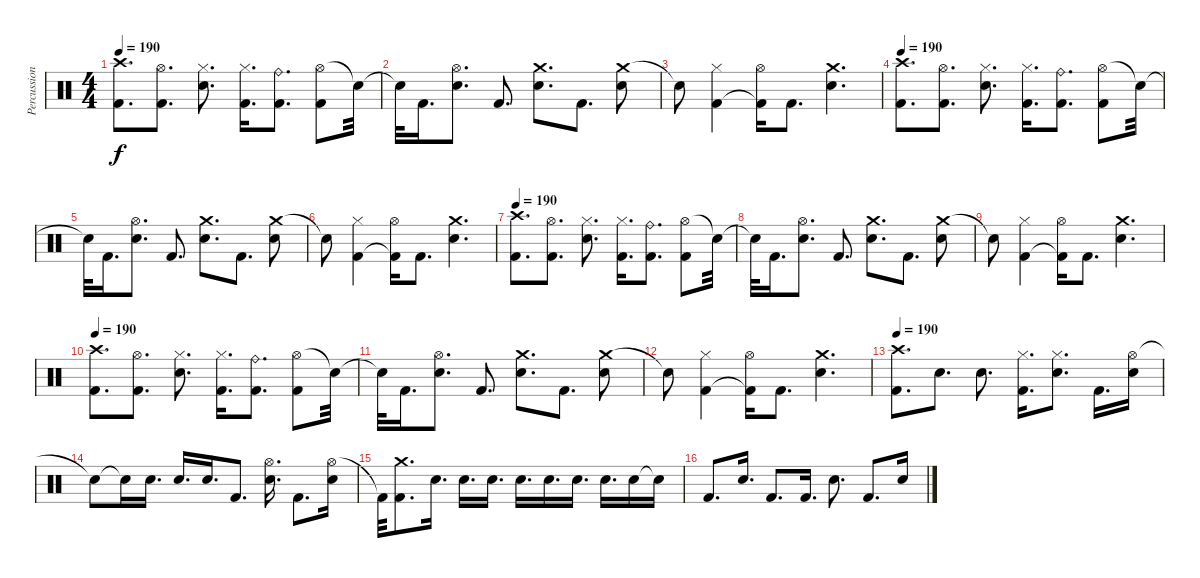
\track ("Percussions" "Percussion") {instrument percussion}
\staff {score}
\articulation defaults
\ts (4 4)
\tempo 190
\clef neutral
\ks c
("Crash high (hit)" "Kick (hit) 2").8{d dy f} ("Hi-Hat (open)" "Kick (hit) 2").8{d} ("Hi-Hat (closed)" "Snare (hit) 2").8{d} ("Hi-Hat (closed)" "Kick (hit) 2").16{d} ("Ride (bell)" "Kick (hit) 2").8{d} ("Hi-Hat (open)" "Kick (hit) 2").8 "Snare (hit)"{t}.32 |
"Snare (hit)"{t}.32 "Kick (hit) 2".16{d} ("Hi-Hat (open)" "Snare (hit) 2").8{d} "Kick (hit) 2".8{d} ("Crash medium (hit)" "Snare (hit) 2").8{d} "Kick (hit) 2".8{d} ("Crash medium (hit)" "Snare (hit) 2").8 |
"Snare (hit)"{t}.8 ("Hi-Hat (closed)" "Kick (hit) 2").4 ("Hi-Hat (open)" "Kick (hit) 2"{t}).16 "Kick (hit) 2".8{d} ("Crash medium (hit)" "Snare (hit) 2").4{d} |
\tempo 190
("Crash high (hit)" "Kick (hit) 2").8{d} ("Hi-Hat (open)" "Kick (hit) 2").8{d} ("Hi-Hat (closed)" "Snare (hit) 2").8{d} ("Hi-Hat (closed)" "Kick (hit) 2").16{d} ("Ride (bell)" "Kick (hit) 2").8{d} ("Hi-Hat (open)" "Kick (hit) 2").8 "Snare (hit)"{t}.32 |
"Snare (hit)"{t}.32 "Kick (hit) 2".16{d} ("Hi-Hat (open)" "Snare (hit) 2").8{d} "Kick (hit) 2".8{d} ("Crash medium (hit)" "Snare (hit) 2").8{d} "Kick (hit) 2".8{d} ("Crash medium (hit)" "Snare (hit) 2").8 |
"Snare (hit)"{t}.8 ("Hi-Hat (closed)" "Kick (hit) 2").4 ("Hi-Hat (open)" "Kick (hit) 2"{t}).16 "Kick (hit) 2".8{d} ("Crash medium (hit)" "Snare (hit) 2").4{d} |
\tempo 190
("Crash high (hit)" "Kick (hit) 2").8{d} ("Hi-Hat (open)" "Kick (hit) 2").8{d} ("Hi-Hat (closed)" "Snare (hit) 2").8{d} ("Hi-Hat (closed)" "Kick (hit) 2").16{d} ("Ride (bell)" "Kick (hit) 2").8{d} ("Hi-Hat (open)" "Kick (hit) 2").8 "Snare (hit)"{t}.32 |
"Snare (hit)"{t}.32 "Kick (hit) 2".16{d} ("Hi-Hat (open)" "Snare (hit) 2").8{d} "Kick (hit) 2".8{d} ("Crash medium (hit)" "Snare (hit) 2").8{d} "Kick (hit) 2".8{d} ("Crash medium (hit)" "Snare (hit) 2").8 |
"Snare (hit)"{t}.8 ("Hi-Hat (closed)" "Kick (hit) 2").4 ("Hi-Hat (open)" "Kick (hit) 2"{t}).16 "Kick (hit) 2".8{d} ("Crash medium (hit)" "Snare (hit) 2").4{d} |
\tempo 190
("Crash high (hit)" "Kick (hit) 2").8{d} ("Hi-Hat (open)" "Kick (hit) 2").8{d} ("Hi-Hat (closed)" "Snare (hit) 2").8{d} ("Hi-Hat (closed)" "Kick (hit) 2").16{d} ("Ride (bell)" "Kick (hit) 2").8{d} ("Hi-Hat (open)" "Kick (hit) 2").8 "Snare (hit)"{t}.32 |
"Snare (hit)"{t}.32 "Kick (hit) 2".16{d} ("Hi-Hat (open)" "Snare (hit) 2").8{d} "Kick (hit) 2".8{d} ("Crash medium (hit)" "Snare (hit) 2").8{d} "Kick (hit) 2".8{d} ("Crash medium (hit)" "Snare (hit) 2").8 |
"Snare (hit)"{t}.8 ("Hi-Hat (closed)" "Kick (hit) 2").4 ("Hi-Hat (open)" "Kick (hit) 2"{t}).16 "Kick (hit) 2".8{d} ("Crash medium (hit)" "Snare (hit) 2").4{d} |
\tempo 190
("Crash high (hit)" "Kick (hit) 2").8{d} "Snare (hit) 2".8{d} "Snare (hit) 2".8{d} ("Hi-Hat (closed)" "Kick (hit) 2").16{d} ("Hi-Hat (closed)" "Snare (hit) 2").8{d} "Kick (hit) 2".16{d} ("Hi-Hat (open)" "Snare (hit) 2").16 |
"Snare (hit) 2"{t}.8 "Snare (hit)"{t}.16 "Snare (hit) 2".16{d} "Snare (hit) 2".16{d} "Snare (hit) 2".16{d} "Kick (hit) 2".8{d} ("Hi-Hat (open)" "Snare (hit) 2").16{d} "Kick (hit) 2".8{d} ("Hi-Hat (open)" "Snare (hit) 2").16 |
"Kick (hit) 2"{t}.32 ("Crash medium (hit)" "Kick (hit) 2").8{d} "Snare (hit) 2".16{d} "Snare (hit) 2".16{d} "Snare (hit) 2".16{d} "Snare (hit) 2".16{d} "Snare (hit) 2".16{d} "Snare (hit) 2".16{d} "Snare (hit) 2".16{d} "Snare (hit) 2".16 "Snare (hit)"{t}.16 |
"Kick (hit) 2".8{d} "Snare (hit) 2".16{d} "Kick (hit) 2".8{d} "Kick (hit) 2".16{d} "Snare (hit) 2".8{d} "Kick (hit) 2".8{d} "Snare (hit) 2".16
